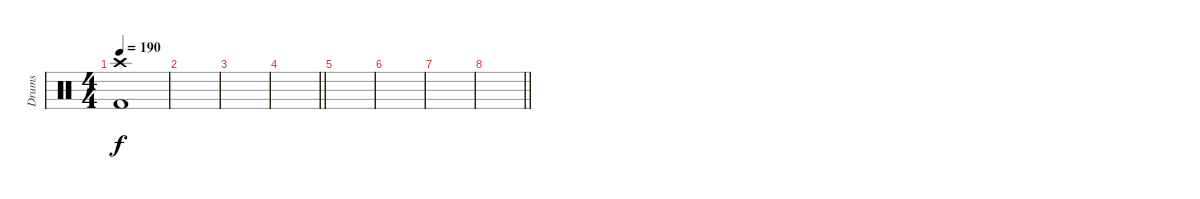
\track ("Drums" "Drums") {instrument percussion}
\staff {score}
\articulation defaults
\ts (4 4)
\tempo 190
\clef neutral
\ks c
("Crash high (hit)" "Kick (hit) 2").1{dy f} |
|
|
\barLineRight lightlight
|
|
|
|
\barLineRight lightlight
